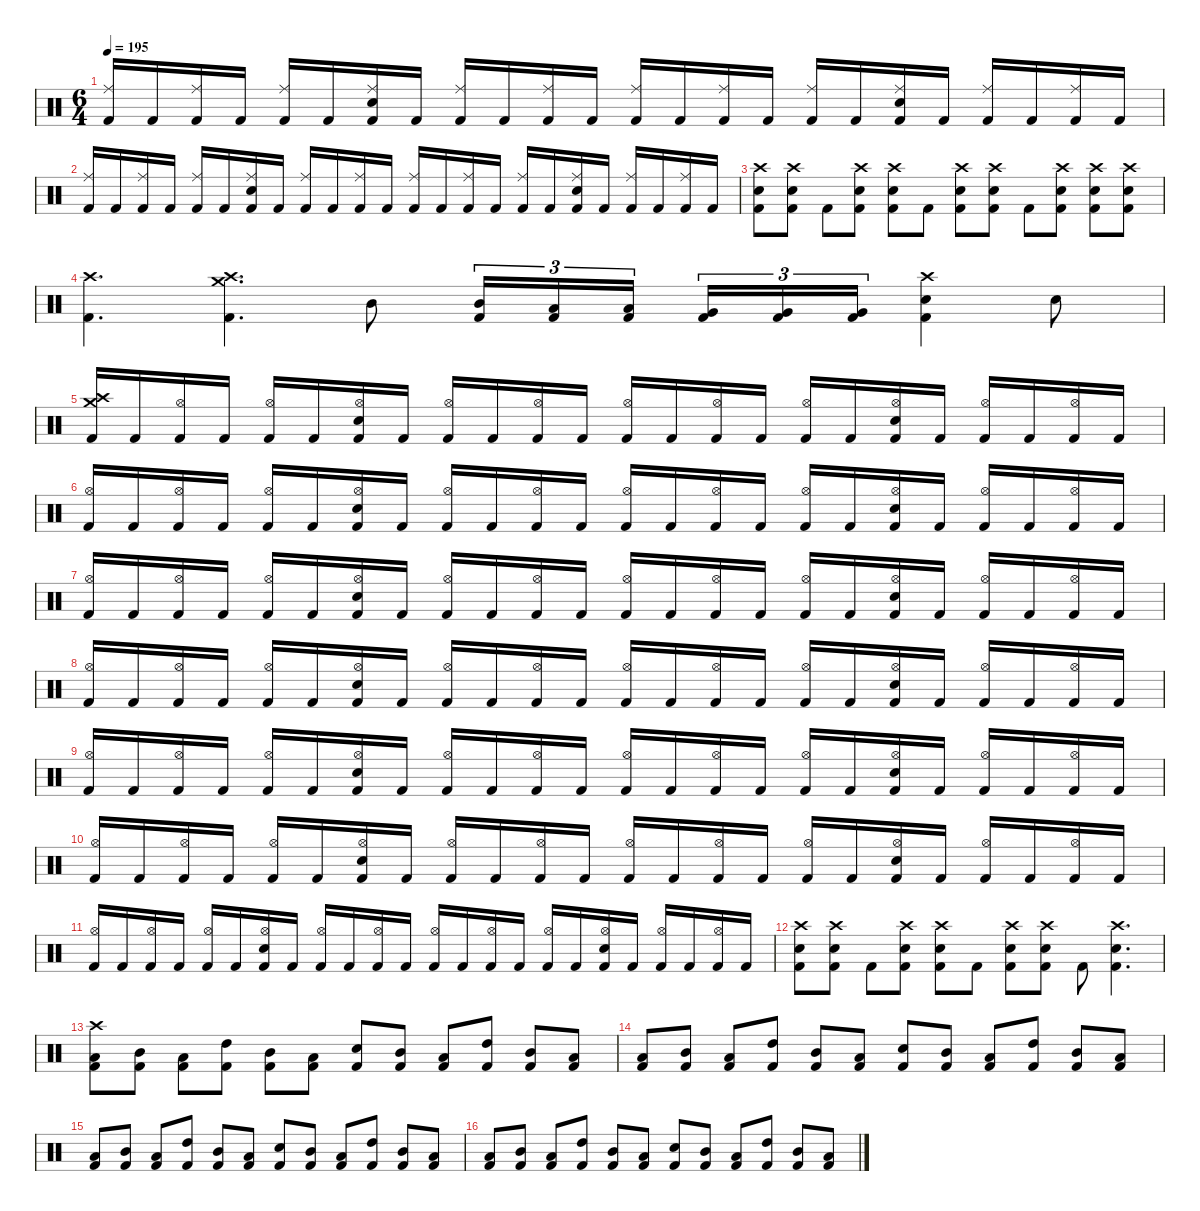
\defaultSystemsLayout 4
\hideDynamics
\bracketExtendMode nobrackets
\singleTrackTrackNamePolicy hidden
\multiTrackTrackNamePolicy hidden
\firstSystemTrackNameMode fullname
\firstSystemTrackNameOrientation horizontal
\otherSystemsTrackNameOrientation horizontal
\track ("Drums" "drm.") {instrument percussion}
\staff {score}
\articulation defaults
\ts (6 4)
\tempo 195
\clef neutral
\ks c
("Ride (middle)" "Kick (hit) 2").16{dy mf beam Up} "Kick (hit) 2".16{dy f beam Up} ("Ride (middle)" "Kick (hit) 2").16{dy mf beam Up} "Kick (hit) 2".16{dy f beam Up} ("Ride (middle)" "Kick (hit) 2").16{dy mf beam Up} "Kick (hit) 2".16{dy f beam Up} ("Ride (middle)" "Snare (hit) 2" "Kick (hit) 2").16{dy mf beam Up} "Kick (hit) 2".16{dy f beam Up} ("Ride (middle)" "Kick (hit) 2").16{dy mf beam Up} "Kick (hit) 2".16{dy f beam Up} ("Ride (middle)" "Kick (hit) 2").16{dy mf beam Up} "Kick (hit) 2".16{dy f beam Up} ("Ride (middle)" "Kick (hit) 2").16{dy mf beam Up} "Kick (hit) 2".16{dy f beam Up} ("Ride (middle)" "Kick (hit) 2").16{dy mf beam Up} "Kick (hit) 2".16{dy f beam Up} ("Ride (middle)" "Kick (hit) 2").16{dy mf beam Up} "Kick (hit) 2".16{dy f beam Up} ("Ride (middle)" "Snare (hit) 2" "Kick (hit) 2").16{dy mf beam Up} "Kick (hit) 2".16{dy f beam Up} ("Ride (middle)" "Kick (hit) 2").16{dy mf beam Up} "Kick (hit) 2".16{dy f beam Up} ("Ride (middle)" "Kick (hit) 2").16{dy mf beam Up} "Kick (hit) 2".16{dy f beam Up} |
("Ride (middle)" "Kick (hit) 2").16{dy mf beam Up} "Kick (hit) 2".16{dy f beam Up} ("Ride (middle)" "Kick (hit) 2").16{dy mf beam Up} "Kick (hit) 2".16{dy f beam Up} ("Ride (middle)" "Kick (hit) 2").16{dy mf beam Up} "Kick (hit) 2".16{dy f beam Up} ("Ride (middle)" "Snare (hit) 2" "Kick (hit) 2").16{dy mf beam Up} "Kick (hit) 2".16{dy f beam Up} ("Ride (middle)" "Kick (hit) 2").16{dy mf beam Up} "Kick (hit) 2".16{dy f beam Up} ("Ride (middle)" "Kick (hit) 2").16{dy mf beam Up} "Kick (hit) 2".16{dy f beam Up} ("Ride (middle)" "Kick (hit) 2").16{dy mf beam Up} "Kick (hit) 2".16{dy f beam Up} ("Ride (middle)" "Kick (hit) 2").16{dy mf beam Up} "Kick (hit) 2".16{dy f beam Up} ("Ride (middle)" "Kick (hit) 2").16{dy mf beam Up} "Kick (hit) 2".16{dy f beam Up} ("Ride (middle)" "Snare (hit) 2" "Kick (hit) 2").16{dy mf beam Up} "Kick (hit) 2".16{dy f beam Up} ("Ride (middle)" "Kick (hit) 2").16{dy mf beam Up} "Kick (hit) 2".16{dy f beam Up} ("Ride (middle)" "Kick (hit) 2").16{dy mf beam Up} "Kick (hit) 2".16{dy f beam Up} |
("Crash high (hit)" "Snare (hit) 2" "Kick (hit) 2").8{beam Down} ("Crash high (hit)" "Snare (hit) 2" "Kick (hit) 2").8{beam Down} "Kick (hit) 2".8{beam Down} ("Crash high (hit)" "Snare (hit) 2" "Kick (hit) 2").8{beam Down} ("Crash high (hit)" "Snare (hit) 2" "Kick (hit) 2").8{beam Down} "Kick (hit) 2".8{beam Down} ("Crash high (hit)" "Snare (hit) 2" "Kick (hit) 2").8{beam Down} ("Crash high (hit)" "Snare (hit) 2" "Kick (hit) 2").8{beam Down} "Kick (hit) 2".8{beam Down} ("Crash high (hit)" "Snare (hit) 2" "Kick (hit) 2").8{beam Down} ("Crash high (hit)" "Snare (hit) 2" "Kick (hit) 2").8{beam Down} ("Crash high (hit)" "Snare (hit) 2" "Kick (hit) 2").8{beam Down} |
("Crash high (hit)" "Kick (hit) 2").4{d beam Down} ("Crash high (hit)" "Crash medium (hit)" "Kick (hit) 2").4{d beam Down} "Mid Tom (hit)".8{beam Down} ("Mid Tom (hit)" "Kick (hit) 2").16{tu (3 2) beam Up} ("Low Tom (hit)" "Kick (hit) 2").16{tu (3 2) beam Up} ("Low Tom (hit)" "Kick (hit) 2").16{tu (3 2) beam Up} ("Very Low Tom (hit)" "Kick (hit) 2").16{tu (3 2) beam Up} ("Very Low Tom (hit)" "Kick (hit) 2").16{tu (3 2) beam Up} ("Very Low Tom (hit)" "Kick (hit) 2").16{tu (3 2) beam Up} ("Crash high (hit)" "Snare (hit) 2" "Kick (hit) 2").4{beam Down} "Snare (hit) 2".8{beam Down} |
("Crash high (hit)" "Crash medium (hit)" "Kick (hit) 2").16{beam Up} "Kick (hit) 2".16{beam Up} ("Hi-Hat (open)" "Kick (hit) 2").16{dy mf beam Up} "Kick (hit) 2".16{dy f beam Up} ("Hi-Hat (open)" "Kick (hit) 2").16{dy mf beam Up} "Kick (hit) 2".16{dy f beam Up} ("Hi-Hat (open)" "Snare (hit) 2" "Kick (hit) 2").16{dy mf beam Up} "Kick (hit) 2".16{dy f beam Up} ("Hi-Hat (open)" "Kick (hit) 2").16{dy mf beam Up} "Kick (hit) 2".16{dy f beam Up} ("Hi-Hat (open)" "Kick (hit) 2").16{dy mf beam Up} "Kick (hit) 2".16{dy f beam Up} ("Hi-Hat (open)" "Kick (hit) 2").16{dy mf beam Up} "Kick (hit) 2".16{dy f beam Up} ("Hi-Hat (open)" "Kick (hit) 2").16{dy mf beam Up} "Kick (hit) 2".16{dy f beam Up} ("Hi-Hat (open)" "Kick (hit) 2").16{dy mf beam Up} "Kick (hit) 2".16{dy f beam Up} ("Hi-Hat (open)" "Snare (hit) 2" "Kick (hit) 2").16{dy mf beam Up} "Kick (hit) 2".16{dy f beam Up} ("Hi-Hat (open)" "Kick (hit) 2").16{dy mf beam Up} "Kick (hit) 2".16{dy f beam Up} ("Hi-Hat (open)" "Kick (hit) 2").16{dy mf beam Up} "Kick (hit) 2".16{dy f beam Up} |
("Hi-Hat (open)" "Kick (hit) 2").16{beam Up} "Kick (hit) 2".16{beam Up} ("Hi-Hat (open)" "Kick (hit) 2").16{dy mf beam Up} "Kick (hit) 2".16{dy f beam Up} ("Hi-Hat (open)" "Kick (hit) 2").16{dy mf beam Up} "Kick (hit) 2".16{dy f beam Up} ("Hi-Hat (open)" "Snare (hit) 2" "Kick (hit) 2").16{dy mf beam Up} "Kick (hit) 2".16{dy f beam Up} ("Hi-Hat (open)" "Kick (hit) 2").16{dy mf beam Up} "Kick (hit) 2".16{dy f beam Up} ("Hi-Hat (open)" "Kick (hit) 2").16{dy mf beam Up} "Kick (hit) 2".16{dy f beam Up} ("Hi-Hat (open)" "Kick (hit) 2").16{dy mf beam Up} "Kick (hit) 2".16{dy f beam Up} ("Hi-Hat (open)" "Kick (hit) 2").16{dy mf beam Up} "Kick (hit) 2".16{dy f beam Up} ("Hi-Hat (open)" "Kick (hit) 2").16{dy mf beam Up} "Kick (hit) 2".16{dy f beam Up} ("Hi-Hat (open)" "Snare (hit) 2" "Kick (hit) 2").16{dy mf beam Up} "Kick (hit) 2".16{dy f beam Up} ("Hi-Hat (open)" "Kick (hit) 2").16{dy mf beam Up} "Kick (hit) 2".16{dy f beam Up} ("Hi-Hat (open)" "Kick (hit) 2").16{dy mf beam Up} "Kick (hit) 2".16{dy f beam Up} |
("Hi-Hat (open)" "Kick (hit) 2").16{beam Up} "Kick (hit) 2".16{beam Up} ("Hi-Hat (open)" "Kick (hit) 2").16{dy mf beam Up} "Kick (hit) 2".16{dy f beam Up} ("Hi-Hat (open)" "Kick (hit) 2").16{dy mf beam Up} "Kick (hit) 2".16{dy f beam Up} ("Hi-Hat (open)" "Snare (hit) 2" "Kick (hit) 2").16{dy mf beam Up} "Kick (hit) 2".16{dy f beam Up} ("Hi-Hat (open)" "Kick (hit) 2").16{dy mf beam Up} "Kick (hit) 2".16{dy f beam Up} ("Hi-Hat (open)" "Kick (hit) 2").16{dy mf beam Up} "Kick (hit) 2".16{dy f beam Up} ("Hi-Hat (open)" "Kick (hit) 2").16{dy mf beam Up} "Kick (hit) 2".16{dy f beam Up} ("Hi-Hat (open)" "Kick (hit) 2").16{dy mf beam Up} "Kick (hit) 2".16{dy f beam Up} ("Hi-Hat (open)" "Kick (hit) 2").16{dy mf beam Up} "Kick (hit) 2".16{dy f beam Up} ("Hi-Hat (open)" "Snare (hit) 2" "Kick (hit) 2").16{dy mf beam Up} "Kick (hit) 2".16{dy f beam Up} ("Hi-Hat (open)" "Kick (hit) 2").16{dy mf beam Up} "Kick (hit) 2".16{dy f beam Up} ("Hi-Hat (open)" "Kick (hit) 2").16{dy mf beam Up} "Kick (hit) 2".16{dy f beam Up} |
("Hi-Hat (open)" "Kick (hit) 2").16{beam Up} "Kick (hit) 2".16{beam Up} ("Hi-Hat (open)" "Kick (hit) 2").16{dy mf beam Up} "Kick (hit) 2".16{dy f beam Up} ("Hi-Hat (open)" "Kick (hit) 2").16{dy mf beam Up} "Kick (hit) 2".16{dy f beam Up} ("Hi-Hat (open)" "Snare (hit) 2" "Kick (hit) 2").16{dy mf beam Up} "Kick (hit) 2".16{dy f beam Up} ("Hi-Hat (open)" "Kick (hit) 2").16{dy mf beam Up} "Kick (hit) 2".16{dy f beam Up} ("Hi-Hat (open)" "Kick (hit) 2").16{dy mf beam Up} "Kick (hit) 2".16{dy f beam Up} ("Hi-Hat (open)" "Kick (hit) 2").16{dy mf beam Up} "Kick (hit) 2".16{dy f beam Up} ("Hi-Hat (open)" "Kick (hit) 2").16{dy mf beam Up} "Kick (hit) 2".16{dy f beam Up} ("Hi-Hat (open)" "Kick (hit) 2").16{dy mf beam Up} "Kick (hit) 2".16{dy f beam Up} ("Hi-Hat (open)" "Snare (hit) 2" "Kick (hit) 2").16{dy mf beam Up} "Kick (hit) 2".16{dy f beam Up} ("Hi-Hat (open)" "Kick (hit) 2").16{dy mf beam Up} "Kick (hit) 2".16{dy f beam Up} ("Hi-Hat (open)" "Kick (hit) 2").16{dy mf beam Up} "Kick (hit) 2".16{dy f beam Up} |
("Hi-Hat (open)" "Kick (hit) 2").16{beam Up} "Kick (hit) 2".16{beam Up} ("Hi-Hat (open)" "Kick (hit) 2").16{dy mf beam Up} "Kick (hit) 2".16{dy f beam Up} ("Hi-Hat (open)" "Kick (hit) 2").16{dy mf beam Up} "Kick (hit) 2".16{dy f beam Up} ("Hi-Hat (open)" "Snare (hit) 2" "Kick (hit) 2").16{dy mf beam Up} "Kick (hit) 2".16{dy f beam Up} ("Hi-Hat (open)" "Kick (hit) 2").16{dy mf beam Up} "Kick (hit) 2".16{dy f beam Up} ("Hi-Hat (open)" "Kick (hit) 2").16{dy mf beam Up} "Kick (hit) 2".16{dy f beam Up} ("Hi-Hat (open)" "Kick (hit) 2").16{dy mf beam Up} "Kick (hit) 2".16{dy f beam Up} ("Hi-Hat (open)" "Kick (hit) 2").16{dy mf beam Up} "Kick (hit) 2".16{dy f beam Up} ("Hi-Hat (open)" "Kick (hit) 2").16{dy mf beam Up} "Kick (hit) 2".16{dy f beam Up} ("Hi-Hat (open)" "Snare (hit) 2" "Kick (hit) 2").16{dy mf beam Up} "Kick (hit) 2".16{dy f beam Up} ("Hi-Hat (open)" "Kick (hit) 2").16{dy mf beam Up} "Kick (hit) 2".16{dy f beam Up} ("Hi-Hat (open)" "Kick (hit) 2").16{dy mf beam Up} "Kick (hit) 2".16{dy f beam Up} |
("Hi-Hat (open)" "Kick (hit) 2").16{beam Up} "Kick (hit) 2".16{beam Up} ("Hi-Hat (open)" "Kick (hit) 2").16{dy mf beam Up} "Kick (hit) 2".16{dy f beam Up} ("Hi-Hat (open)" "Kick (hit) 2").16{dy mf beam Up} "Kick (hit) 2".16{dy f beam Up} ("Hi-Hat (open)" "Snare (hit) 2" "Kick (hit) 2").16{dy mf beam Up} "Kick (hit) 2".16{dy f beam Up} ("Hi-Hat (open)" "Kick (hit) 2").16{dy mf beam Up} "Kick (hit) 2".16{dy f beam Up} ("Hi-Hat (open)" "Kick (hit) 2").16{dy mf beam Up} "Kick (hit) 2".16{dy f beam Up} ("Hi-Hat (open)" "Kick (hit) 2").16{dy mf beam Up} "Kick (hit) 2".16{dy f beam Up} ("Hi-Hat (open)" "Kick (hit) 2").16{dy mf beam Up} "Kick (hit) 2".16{dy f beam Up} ("Hi-Hat (open)" "Kick (hit) 2").16{dy mf beam Up} "Kick (hit) 2".16{dy f beam Up} ("Hi-Hat (open)" "Snare (hit) 2" "Kick (hit) 2").16{dy mf beam Up} "Kick (hit) 2".16{dy f beam Up} ("Hi-Hat (open)" "Kick (hit) 2").16{dy mf beam Up} "Kick (hit) 2".16{dy f beam Up} ("Hi-Hat (open)" "Kick (hit) 2").16{dy mf beam Up} "Kick (hit) 2".16{dy f beam Up} |
("Hi-Hat (open)" "Kick (hit) 2").16{beam Up} "Kick (hit) 2".16{beam Up} ("Hi-Hat (open)" "Kick (hit) 2").16{dy mf beam Up} "Kick (hit) 2".16{dy f beam Up} ("Hi-Hat (open)" "Kick (hit) 2").16{dy mf beam Up} "Kick (hit) 2".16{dy f beam Up} ("Hi-Hat (open)" "Snare (hit) 2" "Kick (hit) 2").16{dy mf beam Up} "Kick (hit) 2".16{dy f beam Up} ("Hi-Hat (open)" "Kick (hit) 2").16{dy mf beam Up} "Kick (hit) 2".16{dy f beam Up} ("Hi-Hat (open)" "Kick (hit) 2").16{dy mf beam Up} "Kick (hit) 2".16{dy f beam Up} ("Hi-Hat (open)" "Kick (hit) 2").16{dy mf beam Up} "Kick (hit) 2".16{dy f beam Up} ("Hi-Hat (open)" "Kick (hit) 2").16{dy mf beam Up} "Kick (hit) 2".16{dy f beam Up} ("Hi-Hat (open)" "Kick (hit) 2").16{dy mf beam Up} "Kick (hit) 2".16{dy f beam Up} ("Hi-Hat (open)" "Snare (hit) 2" "Kick (hit) 2").16{dy mf beam Up} "Kick (hit) 2".16{dy f beam Up} ("Hi-Hat (open)" "Kick (hit) 2").16{dy mf beam Up} "Kick (hit) 2".16{dy f beam Up} ("Hi-Hat (open)" "Kick (hit) 2").16{dy mf beam Up} "Kick (hit) 2".16{dy f beam Up} |
("Crash high (hit)" "Snare (hit) 2" "Kick (hit) 2").8{beam Down} ("Crash high (hit)" "Snare (hit) 2" "Kick (hit) 2").8{beam Down} "Kick (hit) 2".8{beam Down} ("Crash high (hit)" "Snare (hit) 2" "Kick (hit) 2").8{beam Down} ("Crash high (hit)" "Snare (hit) 2" "Kick (hit) 2").8{beam Down} "Kick (hit) 2".8{beam Down} ("Crash high (hit)" "Snare (hit) 2" "Kick (hit) 2").8{beam Down} ("Crash high (hit)" "Snare (hit) 2" "Kick (hit) 2").8{beam Down} "Kick (hit) 2".8{beam Down} ("Crash high (hit)" "Snare (hit) 2" "Kick (hit) 2").4{d beam Down} |
("Crash high (hit)" "Low Tom (hit)" "Kick (hit) 2").8{beam Down} ("Mid Tom (hit)" "Kick (hit) 2").8{beam Down} ("Low Tom (hit)" "Kick (hit) 2").8{beam Down} ("High Tom (hit)" "Kick (hit) 2").8{beam Down} ("Mid Tom (hit)" "Kick (hit) 2").8{beam Down} ("Low Tom (hit)" "Kick (hit) 2").8{beam Down} ("Snare (hit) 2" "Kick (hit) 2").8{beam Up} ("Mid Tom (hit)" "Kick (hit) 2").8{beam Up} ("Low Tom (hit)" "Kick (hit) 2").8{beam Up} ("High Tom (hit)" "Kick (hit) 2").8{beam Up} ("Mid Tom (hit)" "Kick (hit) 2").8{beam Up} ("Low Tom (hit)" "Kick (hit) 2").8{beam Up} |
("Low Tom (hit)" "Kick (hit) 2").8{beam Up} ("Mid Tom (hit)" "Kick (hit) 2").8{beam Up} ("Low Tom (hit)" "Kick (hit) 2").8{beam Up} ("High Tom (hit)" "Kick (hit) 2").8{beam Up} ("Mid Tom (hit)" "Kick (hit) 2").8{beam Up} ("Low Tom (hit)" "Kick (hit) 2").8{beam Up} ("Snare (hit) 2" "Kick (hit) 2").8{beam Up} ("Mid Tom (hit)" "Kick (hit) 2").8{beam Up} ("Low Tom (hit)" "Kick (hit) 2").8{beam Up} ("High Tom (hit)" "Kick (hit) 2").8{beam Up} ("Mid Tom (hit)" "Kick (hit) 2").8{beam Up} ("Low Tom (hit)" "Kick (hit) 2").8{beam Up} |
("Low Tom (hit)" "Kick (hit) 2").8{beam Up} ("Mid Tom (hit)" "Kick (hit) 2").8{beam Up} ("Low Tom (hit)" "Kick (hit) 2").8{beam Up} ("High Tom (hit)" "Kick (hit) 2").8{beam Up} ("Mid Tom (hit)" "Kick (hit) 2").8{beam Up} ("Low Tom (hit)" "Kick (hit) 2").8{beam Up} ("Snare (hit) 2" "Kick (hit) 2").8{beam Up} ("Mid Tom (hit)" "Kick (hit) 2").8{beam Up} ("Low Tom (hit)" "Kick (hit) 2").8{beam Up} ("High Tom (hit)" "Kick (hit) 2").8{beam Up} ("Mid Tom (hit)" "Kick (hit) 2").8{beam Up} ("Low Tom (hit)" "Kick (hit) 2").8{beam Up} |
("Low Tom (hit)" "Kick (hit) 2").8{beam Up} ("Mid Tom (hit)" "Kick (hit) 2").8{beam Up} ("Low Tom (hit)" "Kick (hit) 2").8{beam Up} ("High Tom (hit)" "Kick (hit) 2").8{beam Up} ("Mid Tom (hit)" "Kick (hit) 2").8{beam Up} ("Low Tom (hit)" "Kick (hit) 2").8{beam Up} ("Snare (hit) 2" "Kick (hit) 2").8{beam Up} ("Mid Tom (hit)" "Kick (hit) 2").8{beam Up} ("Low Tom (hit)" "Kick (hit) 2").8{beam Up} ("High Tom (hit)" "Kick (hit) 2").8{beam Up} ("Mid Tom (hit)" "Kick (hit) 2").8{beam Up} ("Low Tom (hit)" "Kick (hit) 2").8{beam Up}
